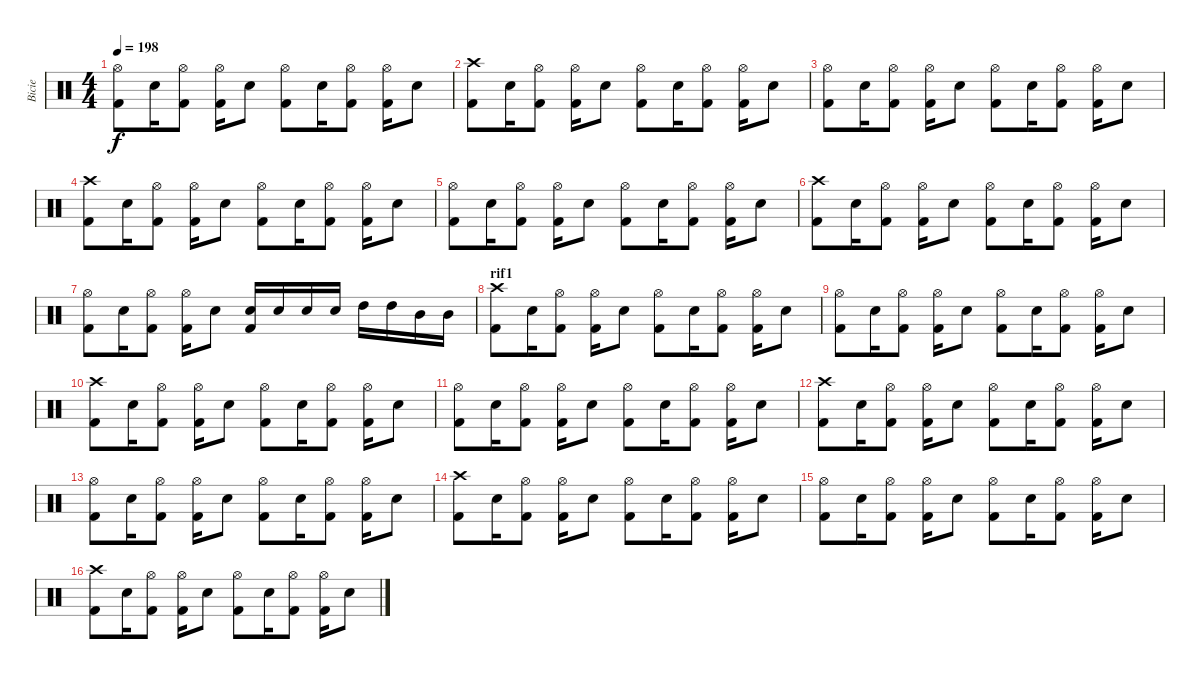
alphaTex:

\track ("Bicie" "Bicie") {instrument percussion}
\staff {score}
\articulation defaults
\ts (4 4)
\tempo 198
\clef neutral
\ks c
("Hi-Hat (open)" "Kick (hit) 2").8{dy f} "Electric Snare (hit)".16 ("Hi-Hat (open)" "Kick (hit) 2").8 ("Hi-Hat (open)" "Kick (hit) 2").16 "Electric Snare (hit)".8 ("Hi-Hat (open)" "Kick (hit) 2").8 "Electric Snare (hit)".16 ("Hi-Hat (open)" "Kick (hit) 2").8 ("Hi-Hat (open)" "Kick (hit) 2").16 "Electric Snare (hit)".8 |
("Crash high (hit)" "Kick (hit) 2").8 "Electric Snare (hit)".16 ("Hi-Hat (open)" "Kick (hit) 2").8 ("Hi-Hat (open)" "Kick (hit) 2").16 "Electric Snare (hit)".8 ("Hi-Hat (open)" "Kick (hit) 2").8 "Electric Snare (hit)".16 ("Hi-Hat (open)" "Kick (hit) 2").8 ("Hi-Hat (open)" "Kick (hit) 2").16 "Electric Snare (hit)".8 |
("Hi-Hat (open)" "Kick (hit) 2").8 "Electric Snare (hit)".16 ("Hi-Hat (open)" "Kick (hit) 2").8 ("Hi-Hat (open)" "Kick (hit) 2").16 "Electric Snare (hit)".8 ("Hi-Hat (open)" "Kick (hit) 2").8 "Electric Snare (hit)".16 ("Hi-Hat (open)" "Kick (hit) 2").8 ("Hi-Hat (open)" "Kick (hit) 2").16 "Electric Snare (hit)".8 |
("Crash high (hit)" "Kick (hit) 2").8 "Electric Snare (hit)".16 ("Hi-Hat (open)" "Kick (hit) 2").8 ("Hi-Hat (open)" "Kick (hit) 2").16 "Electric Snare (hit)".8 ("Hi-Hat (open)" "Kick (hit) 2").8 "Electric Snare (hit)".16 ("Hi-Hat (open)" "Kick (hit) 2").8 ("Hi-Hat (open)" "Kick (hit) 2").16 "Electric Snare (hit)".8 |
("Hi-Hat (open)" "Kick (hit) 2").8 "Electric Snare (hit)".16 ("Hi-Hat (open)" "Kick (hit) 2").8 ("Hi-Hat (open)" "Kick (hit) 2").16 "Electric Snare (hit)".8 ("Hi-Hat (open)" "Kick (hit) 2").8 "Electric Snare (hit)".16 ("Hi-Hat (open)" "Kick (hit) 2").8 ("Hi-Hat (open)" "Kick (hit) 2").16 "Electric Snare (hit)".8 |
("Crash high (hit)" "Kick (hit) 2").8 "Electric Snare (hit)".16 ("Hi-Hat (open)" "Kick (hit) 2").8 ("Hi-Hat (open)" "Kick (hit) 2").16 "Electric Snare (hit)".8 ("Hi-Hat (open)" "Kick (hit) 2").8 "Electric Snare (hit)".16 ("Hi-Hat (open)" "Kick (hit) 2").8 ("Hi-Hat (open)" "Kick (hit) 2").16 "Electric Snare (hit)".8 |
("Hi-Hat (open)" "Kick (hit) 2").8 "Electric Snare (hit)".16 ("Hi-Hat (open)" "Kick (hit) 2").8 ("Hi-Hat (open)" "Kick (hit) 2").16 "Electric Snare (hit)".8 ("Electric Snare (hit)" "Kick (hit) 2").16 "Electric Snare (hit)".16 "Electric Snare (hit)".16 "Electric Snare (hit)".16 "High Tom (hit)".16 "High Tom (hit)".16 "Mid Tom (hit)".16 "Mid Tom (hit)".16 |
\section ("" "rif1")
("Crash high (hit)" "Kick (hit) 2").8 "Electric Snare (hit)".16 ("Hi-Hat (open)" "Kick (hit) 2").8 ("Hi-Hat (open)" "Kick (hit) 2").16 "Electric Snare (hit)".8 ("Hi-Hat (open)" "Kick (hit) 2").8 "Electric Snare (hit)".16 ("Hi-Hat (open)" "Kick (hit) 2").8 ("Hi-Hat (open)" "Kick (hit) 2").16 "Electric Snare (hit)".8 |
("Hi-Hat (open)" "Kick (hit) 2").8 "Electric Snare (hit)".16 ("Hi-Hat (open)" "Kick (hit) 2").8 ("Hi-Hat (open)" "Kick (hit) 2").16 "Electric Snare (hit)".8 ("Hi-Hat (open)" "Kick (hit) 2").8 "Electric Snare (hit)".16 ("Hi-Hat (open)" "Kick (hit) 2").8 ("Hi-Hat (open)" "Kick (hit) 2").16 "Electric Snare (hit)".8 |
("Crash high (hit)" "Kick (hit) 2").8 "Electric Snare (hit)".16 ("Hi-Hat (open)" "Kick (hit) 2").8 ("Hi-Hat (open)" "Kick (hit) 2").16 "Electric Snare (hit)".8 ("Hi-Hat (open)" "Kick (hit) 2").8 "Electric Snare (hit)".16 ("Hi-Hat (open)" "Kick (hit) 2").8 ("Hi-Hat (open)" "Kick (hit) 2").16 "Electric Snare (hit)".8 |
("Hi-Hat (open)" "Kick (hit) 2").8 "Electric Snare (hit)".16 ("Hi-Hat (open)" "Kick (hit) 2").8 ("Hi-Hat (open)" "Kick (hit) 2").16 "Electric Snare (hit)".8 ("Hi-Hat (open)" "Kick (hit) 2").8 "Electric Snare (hit)".16 ("Hi-Hat (open)" "Kick (hit) 2").8 ("Hi-Hat (open)" "Kick (hit) 2").16 "Electric Snare (hit)".8 |
("Crash high (hit)" "Kick (hit) 2").8 "Electric Snare (hit)".16 ("Hi-Hat (open)" "Kick (hit) 2").8 ("Hi-Hat (open)" "Kick (hit) 2").16 "Electric Snare (hit)".8 ("Hi-Hat (open)" "Kick (hit) 2").8 "Electric Snare (hit)".16 ("Hi-Hat (open)" "Kick (hit) 2").8 ("Hi-Hat (open)" "Kick (hit) 2").16 "Electric Snare (hit)".8 |
("Hi-Hat (open)" "Kick (hit) 2").8 "Electric Snare (hit)".16 ("Hi-Hat (open)" "Kick (hit) 2").8 ("Hi-Hat (open)" "Kick (hit) 2").16 "Electric Snare (hit)".8 ("Hi-Hat (open)" "Kick (hit) 2").8 "Electric Snare (hit)".16 ("Hi-Hat (open)" "Kick (hit) 2").8 ("Hi-Hat (open)" "Kick (hit) 2").16 "Electric Snare (hit)".8 |
("Crash high (hit)" "Kick (hit) 2").8 "Electric Snare (hit)".16 ("Hi-Hat (open)" "Kick (hit) 2").8 ("Hi-Hat (open)" "Kick (hit) 2").16 "Electric Snare (hit)".8 ("Hi-Hat (open)" "Kick (hit) 2").8 "Electric Snare (hit)".16 ("Hi-Hat (open)" "Kick (hit) 2").8 ("Hi-Hat (open)" "Kick (hit) 2").16 "Electric Snare (hit)".8 |
("Hi-Hat (open)" "Kick (hit) 2").8 "Electric Snare (hit)".16 ("Hi-Hat (open)" "Kick (hit) 2").8 ("Hi-Hat (open)" "Kick (hit) 2").16 "Electric Snare (hit)".8 ("Hi-Hat (open)" "Kick (hit) 2").8 "Electric Snare (hit)".16 ("Hi-Hat (open)" "Kick (hit) 2").8 ("Hi-Hat (open)" "Kick (hit) 2").16 "Electric Snare (hit)".8 |
("Crash high (hit)" "Kick (hit) 2").8 "Electric Snare (hit)".16 ("Hi-Hat (open)" "Kick (hit) 2").8 ("Hi-Hat (open)" "Kick (hit) 2").16 "Electric Snare (hit)".8 ("Hi-Hat (open)" "Kick (hit) 2").8 "Electric Snare (hit)".16 ("Hi-Hat (open)" "Kick (hit) 2").8 ("Hi-Hat (open)" "Kick (hit) 2").16 "Electric Snare (hit)".8
